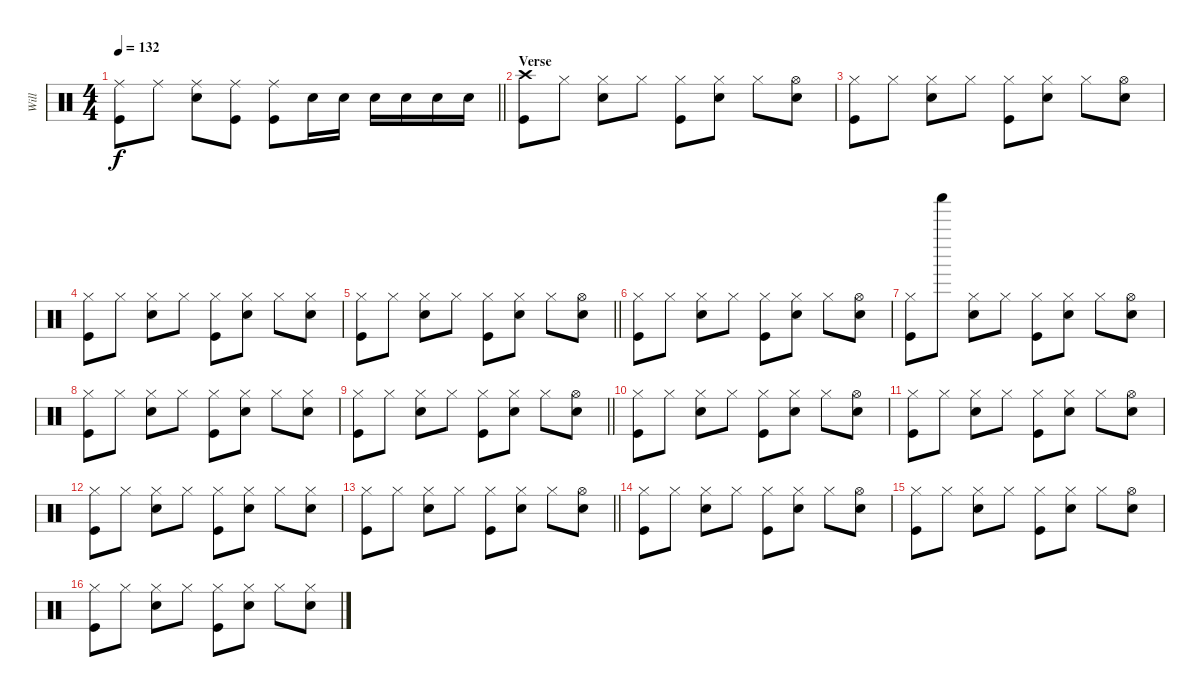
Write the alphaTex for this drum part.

\track ("Will" "Will") {instrument percussion}
\staff {score}
\articulation defaults
\ts (4 4)
\tempo 132
\clef neutral
\barLineRight lightlight
\ks c
("Ride (middle)" "Kick (hit)").8{dy f} "Ride (middle)".8 ("Ride (middle)" "Snare (hit) 2").8 ("Ride (middle)" "Kick (hit)").8 ("Ride (middle)" "Kick (hit)").8 "Snare (hit) 2".16 "Snare (hit) 2".16 "Snare (hit) 2".16 "Snare (hit) 2".16 "Snare (hit) 2".16 "Snare (hit) 2".16 |
\section ("" "Verse")
("Crash high (hit)" "Kick (hit)").8 "Hi-Hat (closed)".8 ("Hi-Hat (closed)" "Snare (hit) 2").8 "Hi-Hat (closed)".8 ("Hi-Hat (closed)" "Kick (hit)").8 ("Hi-Hat (closed)" "Snare (hit) 2").8 "Hi-Hat (closed)".8 ("Hi-Hat (open)" "Snare (hit) 2").8 |
("Hi-Hat (closed)" "Kick (hit)").8 "Hi-Hat (closed)".8 ("Hi-Hat (closed)" "Snare (hit) 2").8 "Hi-Hat (closed)".8 ("Hi-Hat (closed)" "Kick (hit)").8 ("Hi-Hat (closed)" "Snare (hit) 2").8 "Hi-Hat (closed)".8 ("Hi-Hat (open)" "Snare (hit) 2").8 |
("Hi-Hat (closed)" "Kick (hit)").8 "Hi-Hat (closed)".8 ("Hi-Hat (closed)" "Snare (hit) 2").8 "Hi-Hat (closed)".8 ("Hi-Hat (closed)" "Kick (hit)").8 ("Hi-Hat (closed)" "Snare (hit) 2").8 "Hi-Hat (closed)".8 ("Hi-Hat (closed)" "Snare (hit) 2").8 |
\barLineRight lightlight
("Hi-Hat (closed)" "Kick (hit)").8 "Hi-Hat (closed)".8 ("Hi-Hat (closed)" "Snare (hit) 2").8 "Hi-Hat (closed)".8 ("Hi-Hat (closed)" "Kick (hit)").8 ("Hi-Hat (closed)" "Snare (hit) 2").8 "Hi-Hat (closed)".8 ("Hi-Hat (open)" "Snare (hit) 2").8 |
("Hi-Hat (closed)" "Kick (hit)").8 "Hi-Hat (closed)".8 ("Hi-Hat (closed)" "Snare (hit) 2").8 "Hi-Hat (closed)".8 ("Hi-Hat (closed)" "Kick (hit)").8 ("Hi-Hat (closed)" "Snare (hit) 2").8 "Hi-Hat (closed)".8 ("Hi-Hat (open)" "Snare (hit) 2").8 |
("Hi-Hat (closed)" "Kick (hit)").8 "Shaker (hit)".8 ("Hi-Hat (closed)" "Snare (hit) 2").8 "Hi-Hat (closed)".8 ("Hi-Hat (closed)" "Kick (hit)").8 ("Hi-Hat (closed)" "Snare (hit) 2").8 "Hi-Hat (closed)".8 ("Hi-Hat (open)" "Snare (hit) 2").8 |
("Hi-Hat (closed)" "Kick (hit)").8 "Hi-Hat (closed)".8 ("Hi-Hat (closed)" "Snare (hit) 2").8 "Hi-Hat (closed)".8 ("Hi-Hat (closed)" "Kick (hit)").8 ("Hi-Hat (closed)" "Snare (hit) 2").8 "Hi-Hat (closed)".8 ("Hi-Hat (closed)" "Snare (hit) 2").8 |
\barLineRight lightlight
("Hi-Hat (closed)" "Kick (hit)").8 "Hi-Hat (closed)".8 ("Hi-Hat (closed)" "Snare (hit) 2").8 "Hi-Hat (closed)".8 ("Hi-Hat (closed)" "Kick (hit)").8 ("Hi-Hat (closed)" "Snare (hit) 2").8 "Hi-Hat (closed)".8 ("Hi-Hat (open)" "Snare (hit) 2").8 |
("Hi-Hat (closed)" "Kick (hit)").8 "Hi-Hat (closed)".8 ("Hi-Hat (closed)" "Snare (hit) 2").8 "Hi-Hat (closed)".8 ("Hi-Hat (closed)" "Kick (hit)").8 ("Hi-Hat (closed)" "Snare (hit) 2").8 "Hi-Hat (closed)".8 ("Hi-Hat (open)" "Snare (hit) 2").8 |
("Hi-Hat (closed)" "Kick (hit)").8 "Hi-Hat (closed)".8 ("Hi-Hat (closed)" "Snare (hit) 2").8 "Hi-Hat (closed)".8 ("Hi-Hat (closed)" "Kick (hit)").8 ("Hi-Hat (closed)" "Snare (hit) 2").8 "Hi-Hat (closed)".8 ("Hi-Hat (open)" "Snare (hit) 2").8 |
("Hi-Hat (closed)" "Kick (hit)").8 "Hi-Hat (closed)".8 ("Hi-Hat (closed)" "Snare (hit) 2").8 "Hi-Hat (closed)".8 ("Hi-Hat (closed)" "Kick (hit)").8 ("Hi-Hat (closed)" "Snare (hit) 2").8 "Hi-Hat (closed)".8 ("Hi-Hat (closed)" "Snare (hit) 2").8 |
\barLineRight lightlight
("Hi-Hat (closed)" "Kick (hit)").8 "Hi-Hat (closed)".8 ("Hi-Hat (closed)" "Snare (hit) 2").8 "Hi-Hat (closed)".8 ("Hi-Hat (closed)" "Kick (hit)").8 ("Hi-Hat (closed)" "Snare (hit) 2").8 "Hi-Hat (closed)".8 ("Hi-Hat (open)" "Snare (hit) 2").8 |
("Hi-Hat (closed)" "Kick (hit)").8 "Hi-Hat (closed)".8 ("Hi-Hat (closed)" "Snare (hit) 2").8 "Hi-Hat (closed)".8 ("Hi-Hat (closed)" "Kick (hit)").8 ("Hi-Hat (closed)" "Snare (hit) 2").8 "Hi-Hat (closed)".8 ("Hi-Hat (open)" "Snare (hit) 2").8 |
("Hi-Hat (closed)" "Kick (hit)").8 "Hi-Hat (closed)".8 ("Hi-Hat (closed)" "Snare (hit) 2").8 "Hi-Hat (closed)".8 ("Hi-Hat (closed)" "Kick (hit)").8 ("Hi-Hat (closed)" "Snare (hit) 2").8 "Hi-Hat (closed)".8 ("Hi-Hat (open)" "Snare (hit) 2").8 |
("Hi-Hat (closed)" "Kick (hit)").8 "Hi-Hat (closed)".8 ("Hi-Hat (closed)" "Snare (hit) 2").8 "Hi-Hat (closed)".8 ("Hi-Hat (closed)" "Kick (hit)").8 ("Hi-Hat (closed)" "Snare (hit) 2").8 "Hi-Hat (closed)".8 ("Hi-Hat (closed)" "Snare (hit) 2").8
